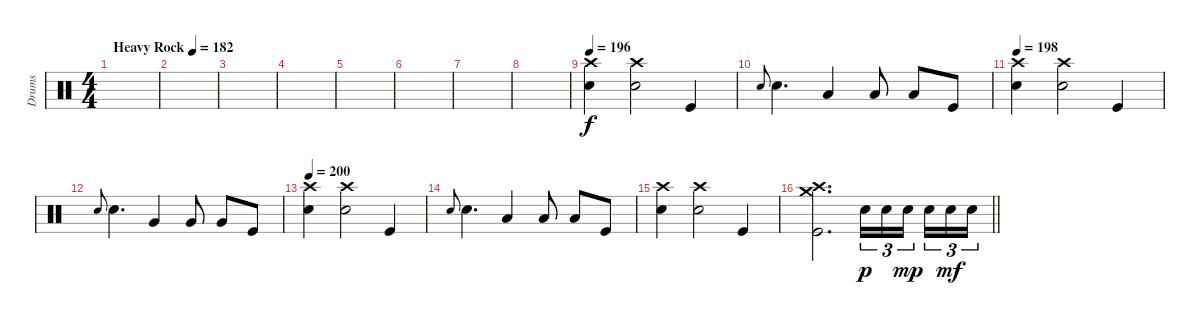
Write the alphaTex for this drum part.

\track ("Drums" "Drums") {instrument percussion}
\staff {score}
\articulation defaults
\ts (4 4)
\tempo (182 "Heavy Rock")
\clef neutral
\ks c
|
|
|
|
|
|
|
|
\tempo 196
("Crash high (hit)" "Snare (hit) 2").4 ("Crash high (hit)" "Snare (hit) 2").2 "Kick (hit)".4 |
"Snare (hit) 2".8{gr onbeat} "Snare (hit) 2".4{d} "Low Tom (hit)".4 "Low Tom (hit)".8 "Low Tom (hit)".8 "Kick (hit)".8 |
\tempo 198
("Crash high (hit)" "Snare (hit) 2").4 ("Crash high (hit)" "Snare (hit) 2").2 "Kick (hit)".4 |
"Snare (hit) 2".8{gr onbeat} "Snare (hit) 2".4{d} "Very Low Tom (hit)".4 "Very Low Tom (hit)".8 "Very Low Tom (hit)".8 "Kick (hit)".8 |
\tempo 200
("Crash high (hit)" "Snare (hit) 2").4 ("Crash high (hit)" "Snare (hit) 2").2 "Kick (hit)".4 |
"Snare (hit) 2".8{gr onbeat} "Snare (hit) 2".4{d} "Low Tom (hit)".4 "Low Tom (hit)".8 "Low Tom (hit)".8 "Kick (hit)".8 |
("Crash high (hit)" "Snare (hit) 2").4 ("Crash high (hit)" "Snare (hit) 2").2 "Kick (hit)".4 |
\barLineRight lightlight
("Crash medium (hit)" "Crash high (hit)" "Kick (hit)").2{d} "Snare (hit) 2".16{tu (3 2) dy p} "Snare (hit) 2".16{tu (3 2)} "Snare (hit) 2".16{tu (3 2) dy mp beam splitsecondary} "Snare (hit) 2".16{tu (3 2)} "Snare (hit) 2".16{tu (3 2) dy mf} "Snare (hit) 2".16{tu (3 2)}
